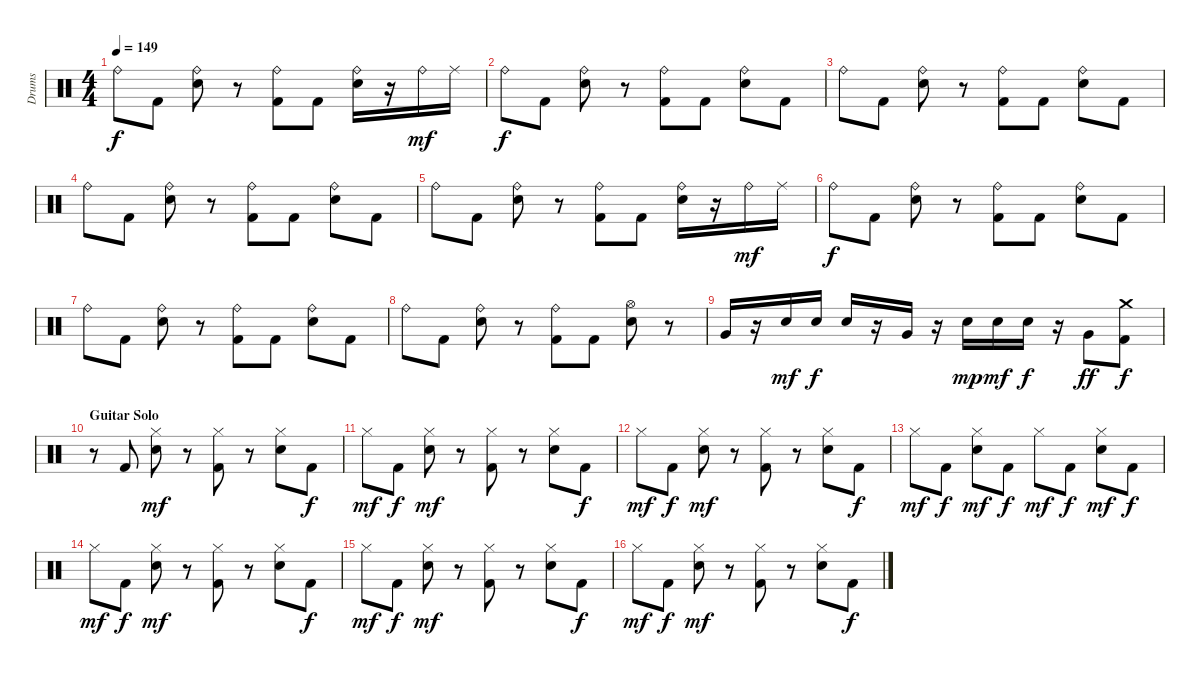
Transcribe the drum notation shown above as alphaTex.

\track ("Drums" "Drums") {instrument percussion}
\staff {score}
\articulation defaults
\ts (4 4)
\tempo 149
\clef neutral
\ks c "Ride (bell)".8{dy f} "Kick (hit) 2".8
("Ride (bell)" "Snare (hit) 2").8 r.8 ("Ride (bell)" "Kick (hit) 2").8 "Kick (hit) 2".8 ("Ride (bell)" "Snare (hit) 2").16 r.16 "Ride (bell)".16{dy mf} "Ride (middle)".16 |
"Ride (bell)".8{dy f} "Kick (hit) 2".8 ("Ride (bell)" "Snare (hit) 2").8 r.8 ("Ride (bell)" "Kick (hit) 2").8 "Kick (hit) 2".8 ("Ride (bell)" "Snare (hit) 2").8 "Kick (hit) 2".8 |
"Ride (bell)".8 "Kick (hit) 2".8 ("Ride (bell)" "Snare (hit) 2").8 r.8 ("Ride (bell)" "Kick (hit) 2").8 "Kick (hit) 2".8 ("Ride (bell)" "Snare (hit) 2").8 "Kick (hit) 2".8 |
"Ride (bell)".8 "Kick (hit) 2".8 ("Ride (bell)" "Snare (hit) 2").8 r.8 ("Ride (bell)" "Kick (hit) 2").8 "Kick (hit) 2".8 ("Ride (bell)" "Snare (hit) 2").8 "Kick (hit) 2".8 |
"Ride (bell)".8 "Kick (hit) 2".8 ("Ride (bell)" "Snare (hit) 2").8 r.8 ("Ride (bell)" "Kick (hit) 2").8 "Kick (hit) 2".8 ("Ride (bell)" "Snare (hit) 2").16 r.16 "Ride (bell)".16{dy mf} "Ride (middle)".16 |
"Ride (bell)".8{dy f} "Kick (hit) 2".8 ("Ride (bell)" "Snare (hit) 2").8 r.8 ("Ride (bell)" "Kick (hit) 2").8 "Kick (hit) 2".8 ("Ride (bell)" "Snare (hit) 2").8 "Kick (hit) 2".8 |
"Ride (bell)".8 "Kick (hit) 2".8 ("Ride (bell)" "Snare (hit) 2").8 r.8 ("Ride (bell)" "Kick (hit) 2").8 "Kick (hit) 2".8 ("Ride (bell)" "Snare (hit) 2").8 "Kick (hit) 2".8 |
"Ride (bell)".8 "Kick (hit) 2".8 ("Ride (bell)" "Snare (hit) 2").8 r.8 ("Ride (bell)" "Kick (hit) 2").8 "Kick (hit) 2".8 ("Hi-Hat (open)" "Snare (hit) 2").8 r.8 |
"Very Low Tom (hit)".16 r.16 "Snare (hit) 2".16{dy mf} "Snare (hit) 2".16{dy f} "Snare (hit) 2".16 r.16 "Very Low Tom (hit)".16 r.16 "Snare (hit) 2".16{dy mp} "Snare (hit) 2".16{dy mf} "Snare (hit) 2".16{dy f} r.16 "Very Low Tom (hit)".8{dy ff} ("Crash medium (hit)" "Kick (hit) 2").8{dy f} |
\section ("" "Guitar Solo")
r.8 "Kick (hit) 2".8 ("Hi-Hat (closed)" "Snare (hit) 2").8{dy mf} r.8 ("Hi-Hat (closed)" "Kick (hit) 2").8 r.8 ("Hi-Hat (closed)" "Snare (hit) 2").8 "Kick (hit) 2".8{dy f} |
"Hi-Hat (closed)".8{dy mf} "Kick (hit) 2".8{dy f} ("Hi-Hat (closed)" "Snare (hit) 2").8{dy mf} r.8 ("Hi-Hat (closed)" "Kick (hit) 2").8 r.8 ("Hi-Hat (closed)" "Snare (hit) 2").8 "Kick (hit) 2".8{dy f} |
"Hi-Hat (closed)".8{dy mf} "Kick (hit) 2".8{dy f} ("Hi-Hat (closed)" "Snare (hit) 2").8{dy mf} r.8 ("Hi-Hat (closed)" "Kick (hit) 2").8 r.8 ("Hi-Hat (closed)" "Snare (hit) 2").8 "Kick (hit) 2".8{dy f} |
"Hi-Hat (closed)".8{dy mf} "Kick (hit) 2".8{dy f} ("Hi-Hat (closed)" "Snare (hit) 2").8{dy mf} "Kick (hit) 2".8{dy f} "Hi-Hat (closed)".8{dy mf} "Kick (hit) 2".8{dy f} ("Hi-Hat (closed)" "Snare (hit) 2").8{dy mf} "Kick (hit) 2".8{dy f} |
"Hi-Hat (closed)".8{dy mf} "Kick (hit) 2".8{dy f} ("Hi-Hat (closed)" "Snare (hit) 2").8{dy mf} r.8 ("Hi-Hat (closed)" "Kick (hit) 2").8 r.8 ("Hi-Hat (closed)" "Snare (hit) 2").8 "Kick (hit) 2".8{dy f} |
"Hi-Hat (closed)".8{dy mf} "Kick (hit) 2".8{dy f} ("Hi-Hat (closed)" "Snare (hit) 2").8{dy mf} r.8 ("Hi-Hat (closed)" "Kick (hit) 2").8 r.8 ("Hi-Hat (closed)" "Snare (hit) 2").8 "Kick (hit) 2".8{dy f} |
"Hi-Hat (closed)".8{dy mf} "Kick (hit) 2".8{dy f} ("Hi-Hat (closed)" "Snare (hit) 2").8{dy mf} r.8 ("Hi-Hat (closed)" "Kick (hit) 2").8 r.8 ("Hi-Hat (closed)" "Snare (hit) 2").8 "Kick (hit) 2".8{dy f}
